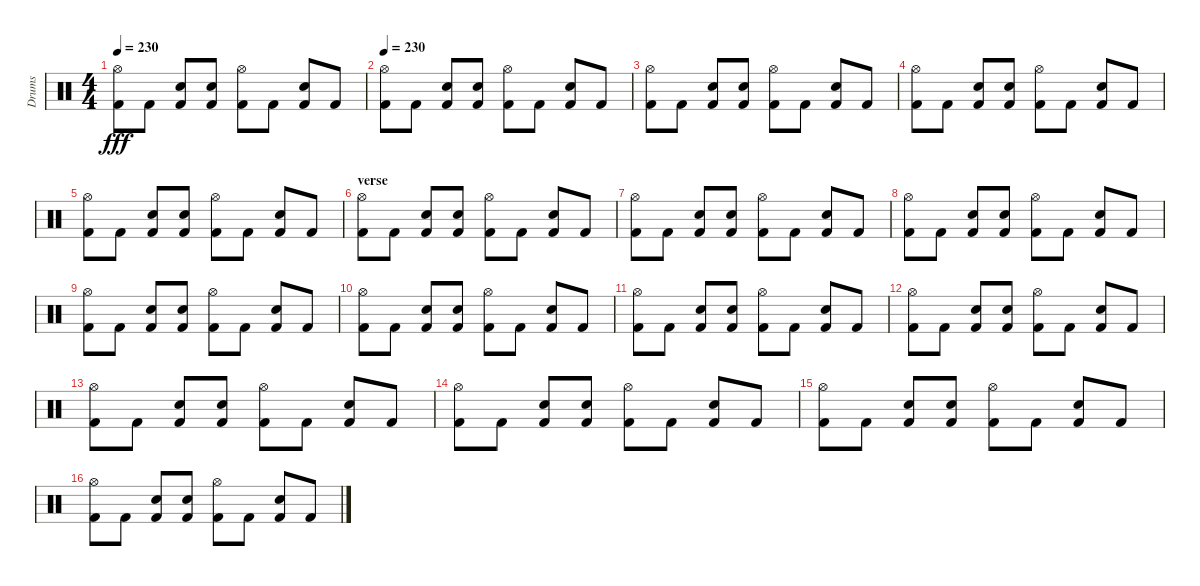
\track ("Drums" "Drums") {instrument percussion}
\staff {score}
\articulation defaults
\ts (4 4)
\tempo 230
\clef neutral
\ks c
("Hi-Hat (open)" "Kick (hit) 2").8{dy fff} "Kick (hit) 2".8 ("Snare (hit) 2" "Kick (hit) 2").8 ("Snare (hit) 2" "Kick (hit) 2").8 ("Hi-Hat (open)" "Kick (hit) 2").8 "Kick (hit) 2".8 ("Snare (hit) 2" "Kick (hit) 2").8 "Kick (hit) 2".8 |
\tempo 230
("Hi-Hat (open)" "Kick (hit) 2").8 "Kick (hit) 2".8 ("Snare (hit) 2" "Kick (hit) 2").8 ("Snare (hit) 2" "Kick (hit) 2").8 ("Hi-Hat (open)" "Kick (hit) 2").8 "Kick (hit) 2".8 ("Snare (hit) 2" "Kick (hit) 2").8 "Kick (hit) 2".8 |
("Hi-Hat (open)" "Kick (hit) 2").8 "Kick (hit) 2".8 ("Snare (hit) 2" "Kick (hit) 2").8 ("Snare (hit) 2" "Kick (hit) 2").8 ("Hi-Hat (open)" "Kick (hit) 2").8 "Kick (hit) 2".8 ("Snare (hit) 2" "Kick (hit) 2").8 "Kick (hit) 2".8 |
("Hi-Hat (open)" "Kick (hit) 2").8 "Kick (hit) 2".8 ("Snare (hit) 2" "Kick (hit) 2").8 ("Snare (hit) 2" "Kick (hit) 2").8 ("Hi-Hat (open)" "Kick (hit) 2").8 "Kick (hit) 2".8 ("Snare (hit) 2" "Kick (hit) 2").8 "Kick (hit) 2".8 |
("Hi-Hat (open)" "Kick (hit) 2").8 "Kick (hit) 2".8 ("Snare (hit) 2" "Kick (hit) 2").8 ("Snare (hit) 2" "Kick (hit) 2").8 ("Hi-Hat (open)" "Kick (hit) 2").8 "Kick (hit) 2".8 ("Snare (hit) 2" "Kick (hit) 2").8 "Kick (hit) 2".8 |
\section ("" "verse")
("Hi-Hat (open)" "Kick (hit) 2").8 "Kick (hit) 2".8 ("Snare (hit) 2" "Kick (hit) 2").8 ("Snare (hit) 2" "Kick (hit) 2").8 ("Hi-Hat (open)" "Kick (hit) 2").8 "Kick (hit) 2".8 ("Snare (hit) 2" "Kick (hit) 2").8 "Kick (hit) 2".8 |
("Hi-Hat (open)" "Kick (hit) 2").8 "Kick (hit) 2".8 ("Snare (hit) 2" "Kick (hit) 2").8 ("Snare (hit) 2" "Kick (hit) 2").8 ("Hi-Hat (open)" "Kick (hit) 2").8 "Kick (hit) 2".8 ("Snare (hit) 2" "Kick (hit) 2").8 "Kick (hit) 2".8 |
("Hi-Hat (open)" "Kick (hit) 2").8 "Kick (hit) 2".8 ("Snare (hit) 2" "Kick (hit) 2").8 ("Snare (hit) 2" "Kick (hit) 2").8 ("Hi-Hat (open)" "Kick (hit) 2").8 "Kick (hit) 2".8 ("Snare (hit) 2" "Kick (hit) 2").8 "Kick (hit) 2".8 |
("Hi-Hat (open)" "Kick (hit) 2").8 "Kick (hit) 2".8 ("Snare (hit) 2" "Kick (hit) 2").8 ("Snare (hit) 2" "Kick (hit) 2").8 ("Hi-Hat (open)" "Kick (hit) 2").8 "Kick (hit) 2".8 ("Snare (hit) 2" "Kick (hit) 2").8 "Kick (hit) 2".8 |
("Hi-Hat (open)" "Kick (hit) 2").8 "Kick (hit) 2".8 ("Snare (hit) 2" "Kick (hit) 2").8 ("Snare (hit) 2" "Kick (hit) 2").8 ("Hi-Hat (open)" "Kick (hit) 2").8 "Kick (hit) 2".8 ("Snare (hit) 2" "Kick (hit) 2").8 "Kick (hit) 2".8 |
("Hi-Hat (open)" "Kick (hit) 2").8 "Kick (hit) 2".8 ("Snare (hit) 2" "Kick (hit) 2").8 ("Snare (hit) 2" "Kick (hit) 2").8 ("Hi-Hat (open)" "Kick (hit) 2").8 "Kick (hit) 2".8 ("Snare (hit) 2" "Kick (hit) 2").8 "Kick (hit) 2".8 |
("Hi-Hat (open)" "Kick (hit) 2").8 "Kick (hit) 2".8 ("Snare (hit) 2" "Kick (hit) 2").8 ("Snare (hit) 2" "Kick (hit) 2").8 ("Hi-Hat (open)" "Kick (hit) 2").8 "Kick (hit) 2".8 ("Snare (hit) 2" "Kick (hit) 2").8 "Kick (hit) 2".8 |
("Hi-Hat (open)" "Kick (hit) 2").8 "Kick (hit) 2".8 ("Snare (hit) 2" "Kick (hit) 2").8 ("Snare (hit) 2" "Kick (hit) 2").8 ("Hi-Hat (open)" "Kick (hit) 2").8 "Kick (hit) 2".8 ("Snare (hit) 2" "Kick (hit) 2").8 "Kick (hit) 2".8 |
("Hi-Hat (open)" "Kick (hit) 2").8 "Kick (hit) 2".8 ("Snare (hit) 2" "Kick (hit) 2").8 ("Snare (hit) 2" "Kick (hit) 2").8 ("Hi-Hat (open)" "Kick (hit) 2").8 "Kick (hit) 2".8 ("Snare (hit) 2" "Kick (hit) 2").8 "Kick (hit) 2".8 |
("Hi-Hat (open)" "Kick (hit) 2").8 "Kick (hit) 2".8 ("Snare (hit) 2" "Kick (hit) 2").8 ("Snare (hit) 2" "Kick (hit) 2").8 ("Hi-Hat (open)" "Kick (hit) 2").8 "Kick (hit) 2".8 ("Snare (hit) 2" "Kick (hit) 2").8 "Kick (hit) 2".8 |
("Hi-Hat (open)" "Kick (hit) 2").8 "Kick (hit) 2".8 ("Snare (hit) 2" "Kick (hit) 2").8 ("Snare (hit) 2" "Kick (hit) 2").8 ("Hi-Hat (open)" "Kick (hit) 2").8 "Kick (hit) 2".8 ("Snare (hit) 2" "Kick (hit) 2").8 "Kick (hit) 2".8
